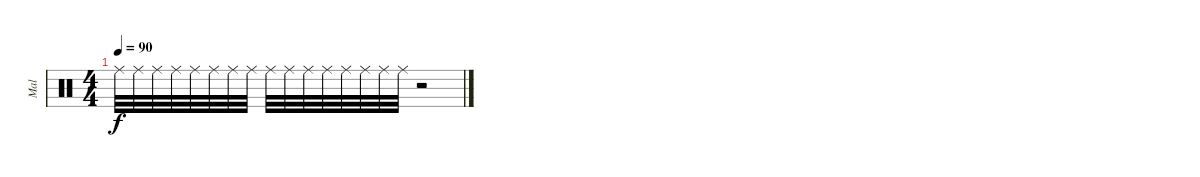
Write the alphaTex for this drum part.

\track ("Mal" "Mal") {instrument percussion}
\staff {score}
\articulation defaults
\ts (4 4)
\tempo 90
\clef neutral
\ks c "Ride (middle)".32{dy f} "Ride (middle)".32 "Ride (middle)".32 "Ride (middle)".32 "Ride (middle)".32 "Ride (middle)".32 "Ride (middle)".32 "Ride (middle)".32 "Ride (middle)".32 "Ride (middle)".32 "Ride (middle)".32 "Ride (middle)".32 "Ride (middle)".32 "Ride (middle)".32 "Ride (middle)".32 "Ride (middle)".32
r.2
